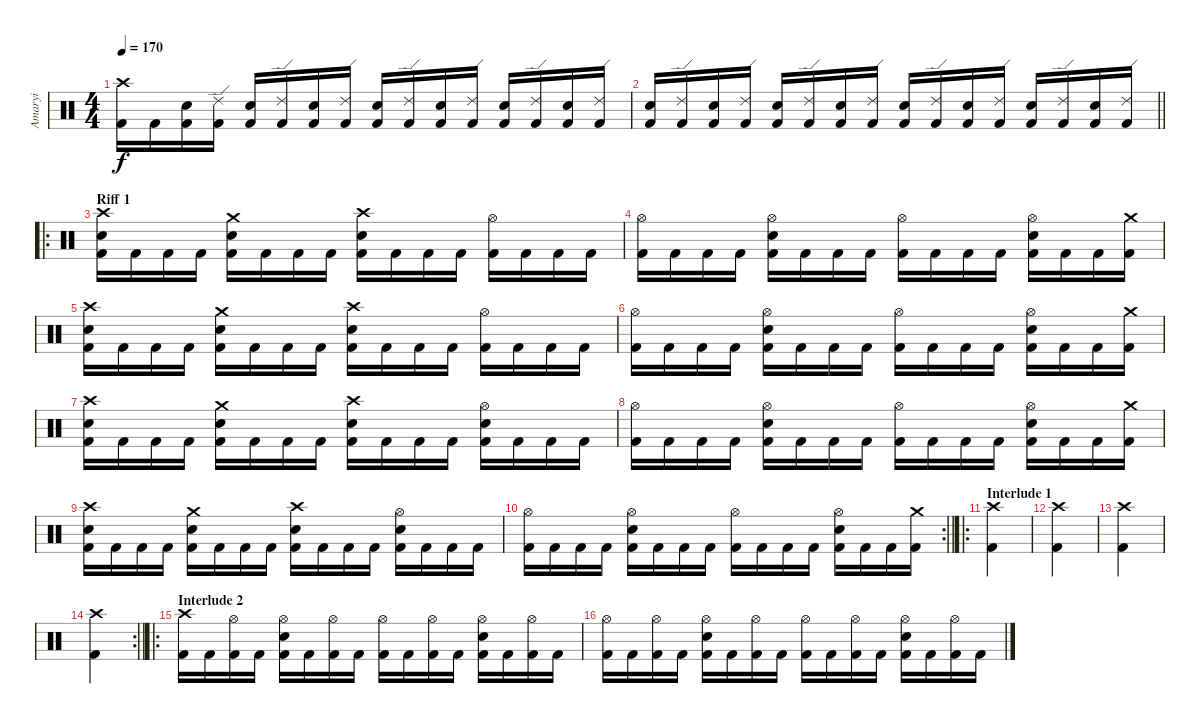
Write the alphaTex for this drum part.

\track ("Amaryi" "Amaryi") {instrument percussion}
\staff {score}
\articulation defaults
\ts (4 4)
\tempo 170
\clef neutral
\ks c
("Crash high (hit)" "Kick (hit) 2").16{dy f} "Kick (hit) 2".16 ("Electric Snare (hit)" "Kick (hit) 2").16 ("Ride (edge) 2" "Kick (hit) 2").16 ("Electric Snare (hit)" "Kick (hit) 2").16 ("Ride (edge) 2" "Kick (hit) 2").16 ("Electric Snare (hit)" "Kick (hit) 2").16 ("Ride (edge) 2" "Kick (hit) 2").16 ("Electric Snare (hit)" "Kick (hit) 2").16 ("Ride (edge) 2" "Kick (hit) 2").16 ("Electric Snare (hit)" "Kick (hit) 2").16 ("Ride (edge) 2" "Kick (hit) 2").16 ("Electric Snare (hit)" "Kick (hit) 2").16 ("Ride (edge) 2" "Kick (hit) 2").16 ("Electric Snare (hit)" "Kick (hit) 2").16 ("Ride (edge) 2" "Kick (hit) 2").16 |
\barLineRight lightlight
("Electric Snare (hit)" "Kick (hit) 2").16 ("Ride (edge) 2" "Kick (hit) 2").16 ("Electric Snare (hit)" "Kick (hit) 2").16 ("Ride (edge) 2" "Kick (hit) 2").16 ("Electric Snare (hit)" "Kick (hit) 2").16 ("Ride (edge) 2" "Kick (hit) 2").16 ("Electric Snare (hit)" "Kick (hit) 2").16 ("Ride (edge) 2" "Kick (hit) 2").16 ("Electric Snare (hit)" "Kick (hit) 2").16 ("Ride (edge) 2" "Kick (hit) 2").16 ("Electric Snare (hit)" "Kick (hit) 2").16 ("Ride (edge) 2" "Kick (hit) 2").16 ("Electric Snare (hit)" "Kick (hit) 2").16 ("Ride (edge) 2" "Kick (hit) 2").16 ("Electric Snare (hit)" "Kick (hit) 2").16 ("Ride (edge) 2" "Kick (hit) 2").16 |
\ro
\section ("" "Riff 1")
("Crash high (hit)" "Electric Snare (hit)" "Kick (hit) 2").16 "Kick (hit) 2".16 "Kick (hit) 2".16 "Kick (hit) 2".16 ("Crash medium (hit)" "Electric Snare (hit)" "Kick (hit) 2").16 "Kick (hit) 2".16 "Kick (hit) 2".16 "Kick (hit) 2".16 ("Crash high (hit)" "Electric Snare (hit)" "Kick (hit) 2").16 "Kick (hit) 2".16 "Kick (hit) 2".16 "Kick (hit) 2".16 ("Hi-Hat (open)" "Kick (hit) 2").16 "Kick (hit) 2".16 "Kick (hit) 2".16 "Kick (hit) 2".16 |
("Hi-Hat (open)" "Kick (hit) 2").16 "Kick (hit) 2".16 "Kick (hit) 2".16 "Kick (hit) 2".16 ("Hi-Hat (open)" "Electric Snare (hit)" "Kick (hit) 2").16 "Kick (hit) 2".16 "Kick (hit) 2".16 "Kick (hit) 2".16 ("Hi-Hat (open)" "Kick (hit) 2").16 "Kick (hit) 2".16 "Kick (hit) 2".16 "Kick (hit) 2".16 ("Hi-Hat (open)" "Electric Snare (hit)" "Kick (hit) 2").16 "Kick (hit) 2".16 "Kick (hit) 2".16 ("Crash medium (hit)" "Kick (hit) 2").16 |
("Crash high (hit)" "Electric Snare (hit)" "Kick (hit) 2").16 "Kick (hit) 2".16 "Kick (hit) 2".16 "Kick (hit) 2".16 ("Crash medium (hit)" "Electric Snare (hit)" "Kick (hit) 2").16 "Kick (hit) 2".16 "Kick (hit) 2".16 "Kick (hit) 2".16 ("Crash high (hit)" "Electric Snare (hit)" "Kick (hit) 2").16 "Kick (hit) 2".16 "Kick (hit) 2".16 "Kick (hit) 2".16 ("Hi-Hat (open)" "Kick (hit) 2").16 "Kick (hit) 2".16 "Kick (hit) 2".16 "Kick (hit) 2".16 |
("Hi-Hat (open)" "Kick (hit) 2").16 "Kick (hit) 2".16 "Kick (hit) 2".16 "Kick (hit) 2".16 ("Hi-Hat (open)" "Electric Snare (hit)" "Kick (hit) 2").16 "Kick (hit) 2".16 "Kick (hit) 2".16 "Kick (hit) 2".16 ("Hi-Hat (open)" "Kick (hit) 2").16 "Kick (hit) 2".16 "Kick (hit) 2".16 "Kick (hit) 2".16 ("Hi-Hat (open)" "Electric Snare (hit)" "Kick (hit) 2").16 "Kick (hit) 2".16 "Kick (hit) 2".16 ("Crash medium (hit)" "Kick (hit) 2").16 |
("Crash high (hit)" "Electric Snare (hit)" "Kick (hit) 2").16 "Kick (hit) 2".16 "Kick (hit) 2".16 "Kick (hit) 2".16 ("Crash medium (hit)" "Electric Snare (hit)" "Kick (hit) 2").16 "Kick (hit) 2".16 "Kick (hit) 2".16 "Kick (hit) 2".16 ("Crash high (hit)" "Electric Snare (hit)" "Kick (hit) 2").16 "Kick (hit) 2".16 "Kick (hit) 2".16 "Kick (hit) 2".16 ("Hi-Hat (open)" "Electric Snare (hit)" "Kick (hit) 2").16 "Kick (hit) 2".16 "Kick (hit) 2".16 "Kick (hit) 2".16 |
("Hi-Hat (open)" "Kick (hit) 2").16 "Kick (hit) 2".16 "Kick (hit) 2".16 "Kick (hit) 2".16 ("Hi-Hat (open)" "Electric Snare (hit)" "Kick (hit) 2").16 "Kick (hit) 2".16 "Kick (hit) 2".16 "Kick (hit) 2".16 ("Hi-Hat (open)" "Kick (hit) 2").16 "Kick (hit) 2".16 "Kick (hit) 2".16 "Kick (hit) 2".16 ("Hi-Hat (open)" "Electric Snare (hit)" "Kick (hit) 2").16 "Kick (hit) 2".16 "Kick (hit) 2".16 ("Crash medium (hit)" "Kick (hit) 2").16 |
("Crash high (hit)" "Electric Snare (hit)" "Kick (hit) 2").16 "Kick (hit) 2".16 "Kick (hit) 2".16 "Kick (hit) 2".16 ("Crash medium (hit)" "Electric Snare (hit)" "Kick (hit) 2").16 "Kick (hit) 2".16 "Kick (hit) 2".16 "Kick (hit) 2".16 ("Crash high (hit)" "Electric Snare (hit)" "Kick (hit) 2").16 "Kick (hit) 2".16 "Kick (hit) 2".16 "Kick (hit) 2".16 ("Hi-Hat (open)" "Electric Snare (hit)" "Kick (hit) 2").16 "Kick (hit) 2".16 "Kick (hit) 2".16 "Kick (hit) 2".16 |
\rc 2
\barLineRight lightlight
("Hi-Hat (open)" "Kick (hit) 2").16 "Kick (hit) 2".16 "Kick (hit) 2".16 "Kick (hit) 2".16 ("Hi-Hat (open)" "Electric Snare (hit)" "Kick (hit) 2").16 "Kick (hit) 2".16 "Kick (hit) 2".16 "Kick (hit) 2".16 ("Hi-Hat (open)" "Kick (hit) 2").16 "Kick (hit) 2".16 "Kick (hit) 2".16 "Kick (hit) 2".16 ("Hi-Hat (open)" "Electric Snare (hit)" "Kick (hit) 2").16 "Kick (hit) 2".16 "Kick (hit) 2".16 ("Crash medium (hit)" "Kick (hit) 2").16 |
\ro
\section ("" "Interlude 1")
("Crash high (hit)" "Kick (hit) 2").4 |
("Crash high (hit)" "Kick (hit) 2").4 |
("Crash high (hit)" "Kick (hit) 2").4 |
\rc 2
\barLineRight lightlight
("Crash high (hit)" "Kick (hit) 2").4 |
\ro
\section ("" "Interlude 2")
("Crash high (hit)" "Kick (hit) 2").16 "Kick (hit) 2".16 ("Hi-Hat (open)" "Kick (hit) 2").16 "Kick (hit) 2".16 ("Hi-Hat (open)" "Electric Snare (hit)" "Kick (hit) 2").16 "Kick (hit) 2".16 ("Hi-Hat (open)" "Kick (hit) 2").16 "Kick (hit) 2".16 ("Hi-Hat (open)" "Kick (hit) 2").16 "Kick (hit) 2".16 ("Hi-Hat (open)" "Kick (hit) 2").16 "Kick (hit) 2".16 ("Hi-Hat (open)" "Electric Snare (hit)" "Kick (hit) 2").16 "Kick (hit) 2".16 ("Hi-Hat (open)" "Kick (hit) 2").16 "Kick (hit) 2".16 |
("Hi-Hat (open)" "Kick (hit) 2").16 "Kick (hit) 2".16 ("Hi-Hat (open)" "Kick (hit) 2").16 "Kick (hit) 2".16 ("Hi-Hat (open)" "Electric Snare (hit)" "Kick (hit) 2").16 "Kick (hit) 2".16 ("Hi-Hat (open)" "Kick (hit) 2").16 "Kick (hit) 2".16 ("Hi-Hat (open)" "Kick (hit) 2").16 "Kick (hit) 2".16 ("Hi-Hat (open)" "Kick (hit) 2").16 "Kick (hit) 2".16 ("Hi-Hat (open)" "Electric Snare (hit)" "Kick (hit) 2").16 "Kick (hit) 2".16 ("Hi-Hat (open)" "Kick (hit) 2").16 "Kick (hit) 2".16
